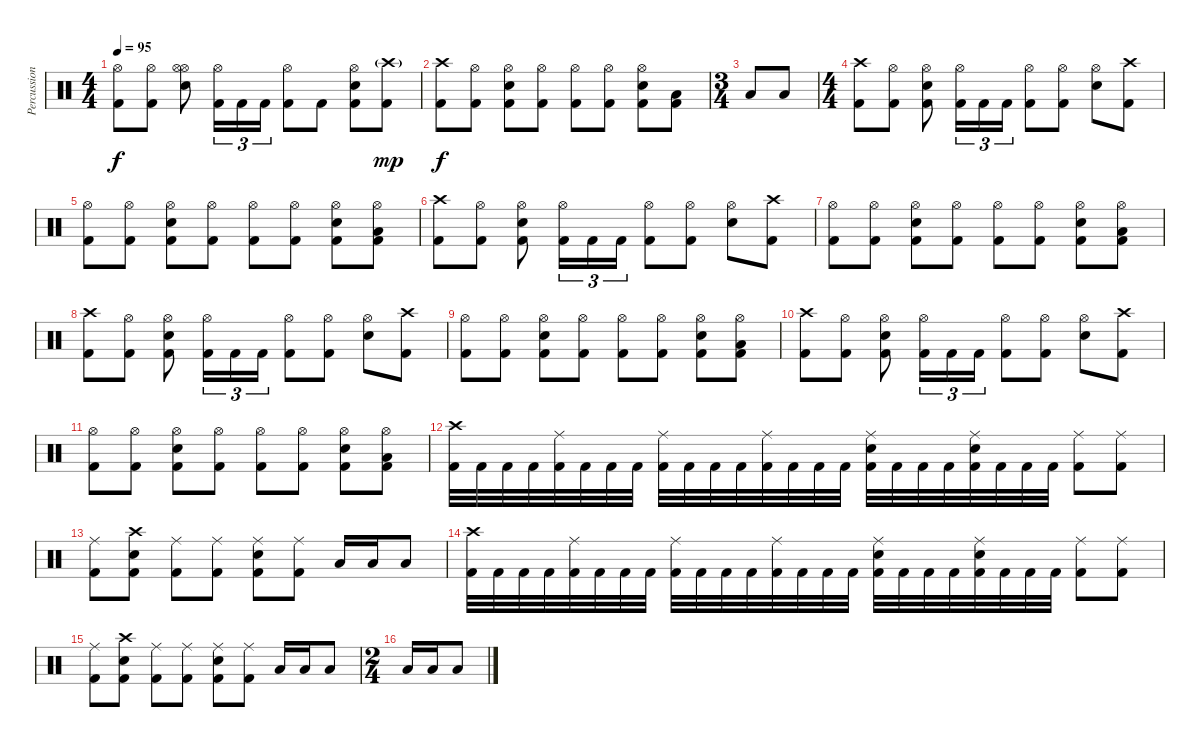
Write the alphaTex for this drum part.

\track ("Percussion" "Percussion") {instrument percussion}
\staff {score}
\articulation defaults
\ts (4 4)
\tempo 95
\clef neutral
\ks c
("Hi-Hat (open)" "Kick (hit) 2").8{dy f} ("Hi-Hat (open)" "Kick (hit) 2").8 ("Hi-Hat (open)" "Snare (hit) 2" "Hi-Hat (open)").8 ("Hi-Hat (open)" "Kick (hit) 2").16{tu (3 2)} "Kick (hit) 2".16{tu (3 2)} "Kick (hit) 2".16{tu (3 2)} ("Hi-Hat (open)" "Kick (hit) 2").8 "Kick (hit) 2".8 ("Hi-Hat (open)" "Snare (hit) 2" "Kick (hit) 2").8 ("Crash high (hit)"{g} "Kick (hit) 2").8{dy mp} |
("Crash high (hit)" "Kick (hit) 2").8{dy f} ("Hi-Hat (open)" "Kick (hit) 2").8 ("Hi-Hat (open)" "Snare (hit) 2" "Kick (hit) 2").8 ("Hi-Hat (open)" "Kick (hit) 2").8 ("Hi-Hat (open)" "Kick (hit) 2").8 ("Hi-Hat (open)" "Kick (hit) 2").8 ("Hi-Hat (open)" "Snare (hit) 2" "Kick (hit) 2").8 ("Low Tom (hit)" "Kick (hit) 2").8 |
\ts (3 4)
"Low Tom (hit)".8 "Low Tom (hit)".8 |
\ts (4 4)
("Crash high (hit)" "Kick (hit) 2").8 ("Hi-Hat (open)" "Kick (hit) 2").8 ("Hi-Hat (open)" "Snare (hit) 2" "Kick (hit) 2").8 ("Hi-Hat (open)" "Kick (hit) 2").16{tu (3 2)} "Kick (hit) 2".16{tu (3 2)} "Kick (hit) 2".16{tu (3 2)} ("Hi-Hat (open)" "Kick (hit) 2").8 ("Hi-Hat (open)" "Kick (hit) 2").8 ("Hi-Hat (open)" "Snare (hit) 2").8 ("Crash high (hit)" "Kick (hit) 2").8 |
("Hi-Hat (open)" "Kick (hit) 2").8 ("Hi-Hat (open)" "Kick (hit) 2").8 ("Hi-Hat (open)" "Snare (hit) 2" "Kick (hit) 2").8 ("Hi-Hat (open)" "Kick (hit) 2").8 ("Hi-Hat (open)" "Kick (hit) 2").8 ("Hi-Hat (open)" "Kick (hit) 2").8 ("Hi-Hat (open)" "Snare (hit) 2" "Kick (hit) 2").8 ("Hi-Hat (open)" "Low Tom (hit)" "Kick (hit) 2").8 |
("Crash high (hit)" "Kick (hit) 2").8 ("Hi-Hat (open)" "Kick (hit) 2").8 ("Hi-Hat (open)" "Snare (hit) 2" "Kick (hit) 2").8 ("Hi-Hat (open)" "Kick (hit) 2").16{tu (3 2)} "Kick (hit) 2".16{tu (3 2)} "Kick (hit) 2".16{tu (3 2)} ("Hi-Hat (open)" "Kick (hit) 2").8 ("Hi-Hat (open)" "Kick (hit) 2").8 ("Hi-Hat (open)" "Snare (hit) 2").8 ("Crash high (hit)" "Kick (hit) 2").8 |
("Hi-Hat (open)" "Kick (hit) 2").8 ("Hi-Hat (open)" "Kick (hit) 2").8 ("Hi-Hat (open)" "Snare (hit) 2" "Kick (hit) 2").8 ("Hi-Hat (open)" "Kick (hit) 2").8 ("Hi-Hat (open)" "Kick (hit) 2").8 ("Hi-Hat (open)" "Kick (hit) 2").8 ("Hi-Hat (open)" "Snare (hit) 2" "Kick (hit) 2").8 ("Hi-Hat (open)" "Low Tom (hit)" "Kick (hit) 2").8 |
("Crash high (hit)" "Kick (hit) 2").8 ("Hi-Hat (open)" "Kick (hit) 2").8 ("Hi-Hat (open)" "Snare (hit) 2" "Kick (hit) 2").8 ("Hi-Hat (open)" "Kick (hit) 2").16{tu (3 2)} "Kick (hit) 2".16{tu (3 2)} "Kick (hit) 2".16{tu (3 2)} ("Hi-Hat (open)" "Kick (hit) 2").8 ("Hi-Hat (open)" "Kick (hit) 2").8 ("Hi-Hat (open)" "Snare (hit) 2").8 ("Crash high (hit)" "Kick (hit) 2").8 |
("Hi-Hat (open)" "Kick (hit) 2").8 ("Hi-Hat (open)" "Kick (hit) 2").8 ("Hi-Hat (open)" "Snare (hit) 2" "Kick (hit) 2").8 ("Hi-Hat (open)" "Kick (hit) 2").8 ("Hi-Hat (open)" "Kick (hit) 2").8 ("Hi-Hat (open)" "Kick (hit) 2").8 ("Hi-Hat (open)" "Snare (hit) 2" "Kick (hit) 2").8 ("Hi-Hat (open)" "Low Tom (hit)" "Kick (hit) 2").8 |
("Crash high (hit)" "Kick (hit) 2").8 ("Hi-Hat (open)" "Kick (hit) 2").8 ("Hi-Hat (open)" "Snare (hit) 2" "Kick (hit) 2").8 ("Hi-Hat (open)" "Kick (hit) 2").16{tu (3 2)} "Kick (hit) 2".16{tu (3 2)} "Kick (hit) 2".16{tu (3 2)} ("Hi-Hat (open)" "Kick (hit) 2").8 ("Hi-Hat (open)" "Kick (hit) 2").8 ("Hi-Hat (open)" "Snare (hit) 2").8 ("Crash high (hit)" "Kick (hit) 2").8 |
("Hi-Hat (open)" "Kick (hit) 2").8 ("Hi-Hat (open)" "Kick (hit) 2").8 ("Hi-Hat (open)" "Snare (hit) 2" "Kick (hit) 2").8 ("Hi-Hat (open)" "Kick (hit) 2").8 ("Hi-Hat (open)" "Kick (hit) 2").8 ("Hi-Hat (open)" "Kick (hit) 2").8 ("Hi-Hat (open)" "Snare (hit) 2" "Kick (hit) 2").8 ("Hi-Hat (open)" "Low Tom (hit)" "Kick (hit) 2").8 |
("Crash high (hit)" "Kick (hit) 2").32 "Kick (hit) 2".32 "Kick (hit) 2".32 "Kick (hit) 2".32 ("Ride (middle)" "Kick (hit) 2").32 "Kick (hit) 2".32 "Kick (hit) 2".32 "Kick (hit) 2".32 ("Ride (middle)" "Kick (hit) 2").32 "Kick (hit) 2".32 "Kick (hit) 2".32 "Kick (hit) 2".32 ("Ride (middle)" "Kick (hit) 2").32 "Kick (hit) 2".32 "Kick (hit) 2".32 "Kick (hit) 2".32 ("Ride (middle)" "Snare (hit) 2" "Kick (hit) 2").32 "Kick (hit) 2".32 "Kick (hit) 2".32 "Kick (hit) 2".32 ("Ride (middle)" "Snare (hit) 2" "Kick (hit) 2").32 "Kick (hit) 2".32 "Kick (hit) 2".32 "Kick (hit) 2".32 ("Ride (middle)" "Kick (hit) 2").8 ("Ride (middle)" "Kick (hit) 2").8 |
("Ride (middle)" "Kick (hit) 2").8 ("Crash high (hit)" "Snare (hit) 2" "Kick (hit) 2").8 ("Ride (middle)" "Kick (hit) 2").8 ("Ride (middle)" "Kick (hit) 2").8 ("Ride (middle)" "Snare (hit) 2" "Kick (hit) 2").8 ("Ride (middle)" "Kick (hit) 2").8 "Low Tom (hit)".16 "Low Tom (hit)".16 "Low Tom (hit)".8 |
("Crash high (hit)" "Kick (hit) 2").32 "Kick (hit) 2".32 "Kick (hit) 2".32 "Kick (hit) 2".32 ("Ride (middle)" "Kick (hit) 2").32 "Kick (hit) 2".32 "Kick (hit) 2".32 "Kick (hit) 2".32 ("Ride (middle)" "Kick (hit) 2").32 "Kick (hit) 2".32 "Kick (hit) 2".32 "Kick (hit) 2".32 ("Ride (middle)" "Kick (hit) 2").32 "Kick (hit) 2".32 "Kick (hit) 2".32 "Kick (hit) 2".32 ("Ride (middle)" "Snare (hit) 2" "Kick (hit) 2").32 "Kick (hit) 2".32 "Kick (hit) 2".32 "Kick (hit) 2".32 ("Ride (middle)" "Snare (hit) 2" "Kick (hit) 2").32 "Kick (hit) 2".32 "Kick (hit) 2".32 "Kick (hit) 2".32 ("Ride (middle)" "Kick (hit) 2").8 ("Ride (middle)" "Kick (hit) 2").8 |
("Ride (middle)" "Kick (hit) 2").8 ("Crash high (hit)" "Snare (hit) 2" "Kick (hit) 2").8 ("Ride (middle)" "Kick (hit) 2").8 ("Ride (middle)" "Kick (hit) 2").8 ("Ride (middle)" "Snare (hit) 2" "Kick (hit) 2").8 ("Ride (middle)" "Kick (hit) 2").8 "Low Tom (hit)".16 "Low Tom (hit)".16 "Low Tom (hit)".8 |
\ts (2 4)
"Low Tom (hit)".16 "Low Tom (hit)".16 "Low Tom (hit)".8
